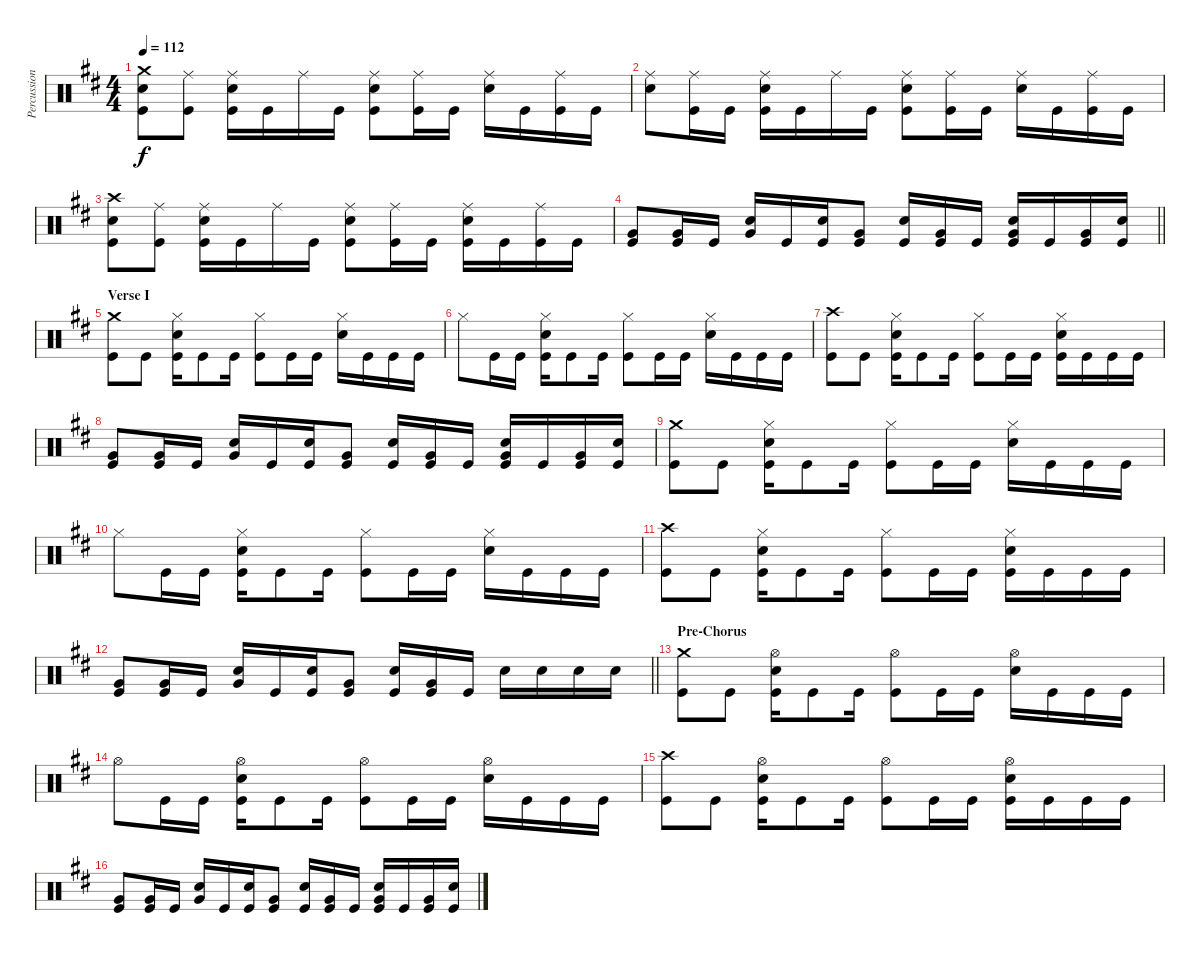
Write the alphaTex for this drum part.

\track ("Percussion" "Percussion") {instrument percussion}
\staff {score}
\articulation defaults
\ts (4 4)
\tempo 112
\clef neutral
\ks d
("Crash medium (hit)" "Electric Snare (hit)" "Kick (hit)").8{dy f} ("Ride (middle)" "Kick (hit)").8 ("Ride (middle)" "Electric Snare (hit)" "Kick (hit)").16 "Kick (hit)".16 "Ride (middle)".16 "Kick (hit)".16 ("Ride (middle)" "Electric Snare (hit)" "Kick (hit)").8 ("Ride (middle)" "Kick (hit)").16 "Kick (hit)".16 ("Ride (middle)" "Electric Snare (hit)").16 "Kick (hit)".16 ("Ride (middle)" "Kick (hit)").16 "Kick (hit)".16 |
("Ride (middle)" "Electric Snare (hit)").8 ("Ride (middle)" "Kick (hit)").16 "Kick (hit)".16 ("Ride (middle)" "Electric Snare (hit)" "Kick (hit)").16 "Kick (hit)".16 "Ride (middle)".16 "Kick (hit)".16 ("Ride (middle)" "Electric Snare (hit)" "Kick (hit)").8 ("Ride (middle)" "Kick (hit)").16 "Kick (hit)".16 ("Ride (middle)" "Electric Snare (hit)").16 "Kick (hit)".16 ("Ride (middle)" "Kick (hit)").16 "Kick (hit)".16 |
("Crash high (hit)" "Electric Snare (hit)" "Kick (hit)").8 ("Ride (middle)" "Kick (hit)").8 ("Ride (middle)" "Electric Snare (hit)" "Kick (hit)").16 "Kick (hit)".16 "Ride (middle)".16 "Kick (hit)".16 ("Ride (middle)" "Electric Snare (hit)" "Kick (hit)").8 ("Ride (middle)" "Kick (hit)").16 "Kick (hit)".16 ("Ride (middle)" "Electric Snare (hit)" "Kick (hit)").16 "Kick (hit)".16 ("Ride (middle)" "Kick (hit)").16 "Kick (hit)".16 |
\barLineRight lightlight
("Very Low Tom (hit)" "Kick (hit)").8 ("Very Low Tom (hit)" "Kick (hit)").16 "Kick (hit)".16 ("Very Low Tom (hit)" "Electric Snare (hit)").16 "Kick (hit)".16 ("Electric Snare (hit)" "Kick (hit)").16 ("Very Low Tom (hit)" "Kick (hit)").8 ("Electric Snare (hit)" "Kick (hit)").16 ("Very Low Tom (hit)" "Kick (hit)").16 "Kick (hit)".16 ("Very Low Tom (hit)" "Electric Snare (hit)" "Kick (hit)").16 "Kick (hit)".16 ("Very Low Tom (hit)" "Kick (hit)").16 ("Electric Snare (hit)" "Kick (hit)").16 |
\section ("" "Verse I")
("Crash medium (hit)" "Kick (hit)").8 "Kick (hit)".8 ("Hi-Hat (closed)" "Electric Snare (hit)" "Kick (hit)").16 "Kick (hit)".8 "Kick (hit)".16 ("Hi-Hat (closed)" "Kick (hit)").8 "Kick (hit)".16 "Kick (hit)".16 ("Hi-Hat (closed)" "Electric Snare (hit)").16 "Kick (hit)".16 "Kick (hit)".16 "Kick (hit)".16 |
"Hi-Hat (closed)".8 "Kick (hit)".16 "Kick (hit)".16 ("Hi-Hat (closed)" "Electric Snare (hit)" "Kick (hit)").16 "Kick (hit)".8 "Kick (hit)".16 ("Hi-Hat (closed)" "Kick (hit)").8 "Kick (hit)".16 "Kick (hit)".16 ("Hi-Hat (closed)" "Electric Snare (hit)").16 "Kick (hit)".16 "Kick (hit)".16 "Kick (hit)".16 |
("Crash high (hit)" "Kick (hit)").8 "Kick (hit)".8 ("Hi-Hat (closed)" "Electric Snare (hit)" "Kick (hit)").16 "Kick (hit)".8 "Kick (hit)".16 ("Hi-Hat (closed)" "Kick (hit)").8 "Kick (hit)".16 "Kick (hit)".16 ("Hi-Hat (closed)" "Electric Snare (hit)" "Kick (hit)").16 "Kick (hit)".16 "Kick (hit)".16 "Kick (hit)".16 |
("Very Low Tom (hit)" "Kick (hit)").8 ("Very Low Tom (hit)" "Kick (hit)").16 "Kick (hit)".16 ("Very Low Tom (hit)" "Electric Snare (hit)").16 "Kick (hit)".16 ("Electric Snare (hit)" "Kick (hit)").16 ("Very Low Tom (hit)" "Kick (hit)").8 ("Electric Snare (hit)" "Kick (hit)").16 ("Very Low Tom (hit)" "Kick (hit)").16 "Kick (hit)".16 ("Very Low Tom (hit)" "Electric Snare (hit)" "Kick (hit)").16 "Kick (hit)".16 ("Very Low Tom (hit)" "Kick (hit)").16 ("Electric Snare (hit)" "Kick (hit)").16 |
("Crash medium (hit)" "Kick (hit)").8 "Kick (hit)".8 ("Hi-Hat (closed)" "Electric Snare (hit)" "Kick (hit)").16 "Kick (hit)".8 "Kick (hit)".16 ("Hi-Hat (closed)" "Kick (hit)").8 "Kick (hit)".16 "Kick (hit)".16 ("Hi-Hat (closed)" "Electric Snare (hit)").16 "Kick (hit)".16 "Kick (hit)".16 "Kick (hit)".16 |
"Hi-Hat (closed)".8 "Kick (hit)".16 "Kick (hit)".16 ("Hi-Hat (closed)" "Electric Snare (hit)" "Kick (hit)").16 "Kick (hit)".8 "Kick (hit)".16 ("Hi-Hat (closed)" "Kick (hit)").8 "Kick (hit)".16 "Kick (hit)".16 ("Hi-Hat (closed)" "Electric Snare (hit)").16 "Kick (hit)".16 "Kick (hit)".16 "Kick (hit)".16 |
("Crash high (hit)" "Kick (hit)").8 "Kick (hit)".8 ("Hi-Hat (closed)" "Electric Snare (hit)" "Kick (hit)").16 "Kick (hit)".8 "Kick (hit)".16 ("Hi-Hat (closed)" "Kick (hit)").8 "Kick (hit)".16 "Kick (hit)".16 ("Hi-Hat (closed)" "Electric Snare (hit)" "Kick (hit)").16 "Kick (hit)".16 "Kick (hit)".16 "Kick (hit)".16 |
\barLineRight lightlight
("Very Low Tom (hit)" "Kick (hit)").8 ("Very Low Tom (hit)" "Kick (hit)").16 "Kick (hit)".16 ("Very Low Tom (hit)" "Electric Snare (hit)").16 "Kick (hit)".16 ("Electric Snare (hit)" "Kick (hit)").16 ("Very Low Tom (hit)" "Kick (hit)").8 ("Electric Snare (hit)" "Kick (hit)").16 ("Very Low Tom (hit)" "Kick (hit)").16 "Kick (hit)".16 "Electric Snare (hit)".16 "Electric Snare (hit)".16 "Electric Snare (hit)".16 "Electric Snare (hit)".16 |
\section ("" "Pre-Chorus")
("Crash medium (hit)" "Kick (hit)").8 "Kick (hit)".8 ("Hi-Hat (open)" "Electric Snare (hit)" "Kick (hit)").16 "Kick (hit)".8 "Kick (hit)".16 ("Hi-Hat (open)" "Kick (hit)").8 "Kick (hit)".16 "Kick (hit)".16 ("Hi-Hat (open)" "Electric Snare (hit)").16 "Kick (hit)".16 "Kick (hit)".16 "Kick (hit)".16 |
"Hi-Hat (open)".8 "Kick (hit)".16 "Kick (hit)".16 ("Hi-Hat (open)" "Electric Snare (hit)" "Kick (hit)").16 "Kick (hit)".8 "Kick (hit)".16 ("Hi-Hat (open)" "Kick (hit)").8 "Kick (hit)".16 "Kick (hit)".16 ("Hi-Hat (open)" "Electric Snare (hit)").16 "Kick (hit)".16 "Kick (hit)".16 "Kick (hit)".16 |
("Crash high (hit)" "Kick (hit)").8 "Kick (hit)".8 ("Hi-Hat (open)" "Electric Snare (hit)" "Kick (hit)").16 "Kick (hit)".8 "Kick (hit)".16 ("Hi-Hat (open)" "Kick (hit)").8 "Kick (hit)".16 "Kick (hit)".16 ("Hi-Hat (open)" "Electric Snare (hit)" "Kick (hit)").16 "Kick (hit)".16 "Kick (hit)".16 "Kick (hit)".16 |
("Very Low Tom (hit)" "Kick (hit)").8 ("Very Low Tom (hit)" "Kick (hit)").16 "Kick (hit)".16 ("Very Low Tom (hit)" "Electric Snare (hit)").16 "Kick (hit)".16 ("Electric Snare (hit)" "Kick (hit)").16 ("Very Low Tom (hit)" "Kick (hit)").8 ("Electric Snare (hit)" "Kick (hit)").16 ("Very Low Tom (hit)" "Kick (hit)").16 "Kick (hit)".16 ("Very Low Tom (hit)" "Electric Snare (hit)" "Kick (hit)").16 "Kick (hit)".16 ("Very Low Tom (hit)" "Kick (hit)").16 ("Electric Snare (hit)" "Kick (hit)").16
